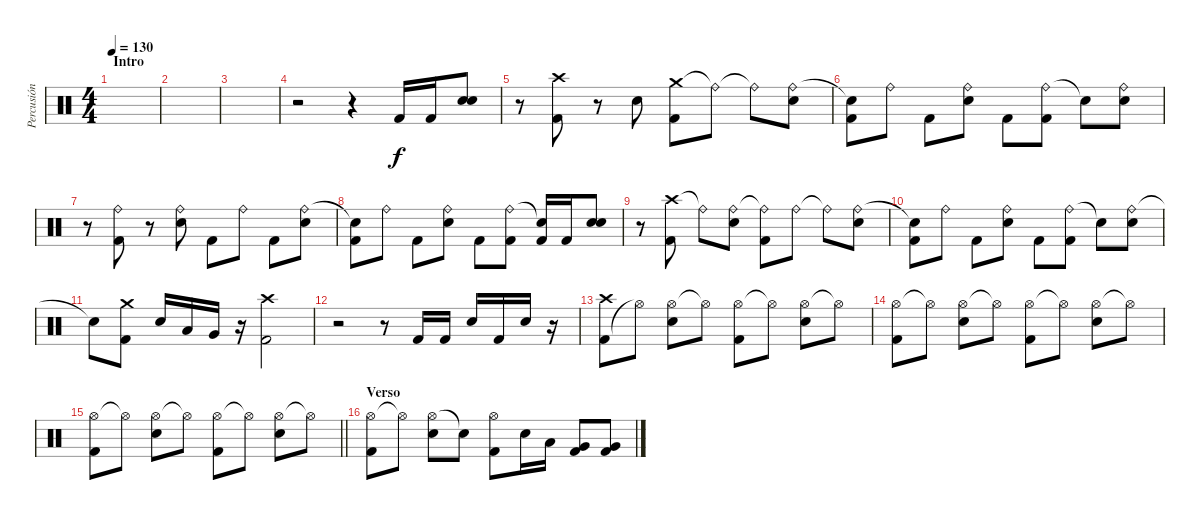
\track ("Percusión" "Percusión") {instrument percussion}
\staff {score}
\articulation defaults
\ts (4 4)
\section ("" "Intro")
\tempo 130
\clef neutral
\ks c
|
|
|
r.2 r.4 "Kick (hit) 2".16 "Kick (hit) 2".16 ("Snare (hit) 2" "Snare (hit) 2").8 |
r.8 ("Crash high (hit)" "Kick (hit) 2").8 r.8 "Snare (hit) 2".8 ("Crash medium (hit)" "Kick (hit) 2").8 "Ride (bell)"{t}.8 "Ride (bell)"{t}.8 ("Ride (bell)" "Snare (hit) 2").8 |
("Snare (hit)"{t} "Kick (hit) 2").8 "Ride (bell)".8 "Kick (hit) 2".8 ("Ride (bell)" "Snare (hit) 2").8 "Kick (hit) 2".8 ("Ride (bell)" "Kick (hit) 2").8 "Snare (hit)"{t}.8 ("Ride (bell)" "Snare (hit) 2").8 |
r.8 ("Ride (bell)" "Kick (hit) 2").8 r.8 ("Ride (bell)" "Snare (hit) 2").8 "Kick (hit) 2".8 "Ride (bell)".8 "Kick (hit) 2".8 ("Ride (bell)" "Snare (hit) 2").8 |
("Snare (hit)"{t} "Kick (hit) 2").8 "Ride (bell)".8 "Kick (hit) 2".8 ("Ride (bell)" "Snare (hit) 2").8 "Kick (hit) 2".8 ("Ride (bell)" "Kick (hit) 2").8 ("Snare (hit)"{t} "Kick (hit) 2").16 "Kick (hit) 2".16 ("Snare (hit) 2" "Snare (hit) 2").8 |
r.8 ("Crash high (hit)" "Kick (hit) 2").8 "Ride (bell)"{t}.8 ("Ride (bell)" "Snare (hit) 2").8 ("Ride (bell)"{t} "Kick (hit) 2").8 "Ride (bell)".8 "Ride (bell)"{t}.8 ("Ride (bell)" "Snare (hit) 2").8 |
("Snare (hit)"{t} "Kick (hit) 2").8 "Ride (bell)".8 "Kick (hit) 2".8 ("Ride (bell)" "Snare (hit) 2").8 "Kick (hit) 2".8 ("Ride (bell)" "Kick (hit) 2").8 "Snare (hit)"{t}.8 ("Ride (bell)" "Snare (hit) 2").8 |
"Snare (hit)"{t}.8 ("Crash medium (hit)" "Kick (hit) 2").8 "Snare (hit) 2".16 "Low Tom (hit)".16 "Very Low Tom (hit)".16 r.16 ("Kick (hit) 2" "Crash high (hit)").2 |
r.2 r.8 "Kick (hit) 2".16 "Kick (hit) 2".16 "Snare (hit) 2".16 "Kick (hit) 2".16 "Snare (hit) 2".16 r.16 |
("Kick (hit) 2" "Crash high (hit)").8 "Hi-Hat (open)"{t}.8 ("Hi-Hat (open)" "Snare (hit) 2").8 "Hi-Hat (open)"{t}.8 ("Hi-Hat (open)" "Kick (hit) 2").8 "Hi-Hat (open)"{t}.8 ("Hi-Hat (open)" "Snare (hit) 2").8 "Hi-Hat (open)"{t}.8 |
("Hi-Hat (open)" "Kick (hit) 2").8 "Hi-Hat (open)"{t}.8 ("Hi-Hat (open)" "Snare (hit) 2").8 "Hi-Hat (open)"{t}.8 ("Hi-Hat (open)" "Kick (hit) 2").8 "Hi-Hat (open)"{t}.8 ("Hi-Hat (open)" "Snare (hit) 2").8 "Hi-Hat (open)"{t}.8 |
\barLineRight lightlight
("Hi-Hat (open)" "Kick (hit) 2").8 "Hi-Hat (open)"{t}.8 ("Hi-Hat (open)" "Snare (hit) 2").8 "Hi-Hat (open)"{t}.8 ("Hi-Hat (open)" "Kick (hit) 2").8 "Hi-Hat (open)"{t}.8 ("Hi-Hat (open)" "Snare (hit) 2").8 "Hi-Hat (open)"{t}.8 |
\section ("" "Verso")
("Hi-Hat (open)" "Kick (hit) 2").8 "Hi-Hat (open)"{t}.8 ("Hi-Hat (open)" "Snare (hit) 2").8 "Snare (hit)"{t}.8 ("Hi-Hat (open)" "Kick (hit) 2").8 "Snare (hit) 2".16 "Low Tom (hit)".16 ("Very Low Tom (hit)" "Kick (hit) 2").8 ("Very Low Tom (hit)" "Kick (hit) 2").8
